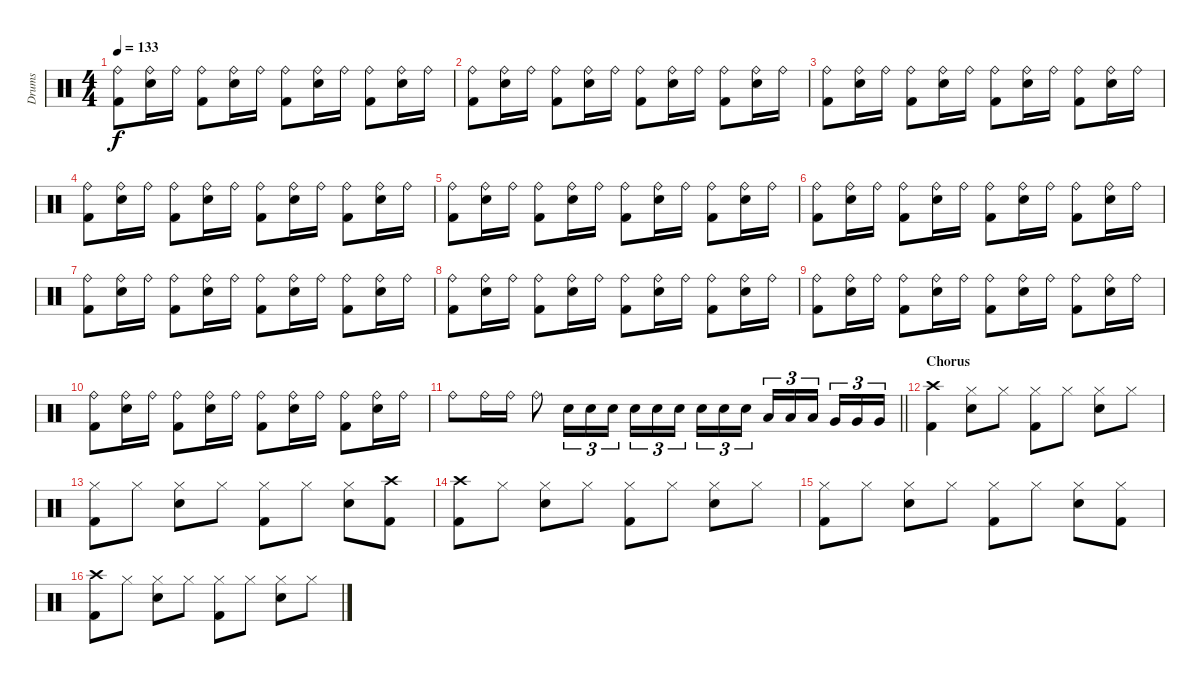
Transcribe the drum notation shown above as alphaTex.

\track ("Drums" "Drums") {instrument percussion}
\staff {score}
\articulation defaults
\ts (4 4)
\tempo 133
\clef neutral
\ks c
("Ride (bell)" "Kick (hit) 2").8{dy f} ("Ride (bell)" "Electric Snare (hit)").16 "Ride (bell)".16 ("Ride (bell)" "Kick (hit) 2").8 ("Ride (bell)" "Electric Snare (hit)").16 "Ride (bell)".16 ("Ride (bell)" "Kick (hit) 2").8 ("Ride (bell)" "Electric Snare (hit)").16 "Ride (bell)".16 ("Ride (bell)" "Kick (hit) 2").8 ("Ride (bell)" "Electric Snare (hit)").16 "Ride (bell)".16 |
("Ride (bell)" "Kick (hit) 2").8 ("Ride (bell)" "Electric Snare (hit)").16 "Ride (bell)".16 ("Ride (bell)" "Kick (hit) 2").8 ("Ride (bell)" "Electric Snare (hit)").16 "Ride (bell)".16 ("Ride (bell)" "Kick (hit) 2").8 ("Ride (bell)" "Electric Snare (hit)").16 "Ride (bell)".16 ("Ride (bell)" "Kick (hit) 2").8 ("Ride (bell)" "Electric Snare (hit)").16 "Ride (bell)".16 |
("Ride (bell)" "Kick (hit) 2").8 ("Ride (bell)" "Electric Snare (hit)").16 "Ride (bell)".16 ("Ride (bell)" "Kick (hit) 2").8 ("Ride (bell)" "Electric Snare (hit)").16 "Ride (bell)".16 ("Ride (bell)" "Kick (hit) 2").8 ("Ride (bell)" "Electric Snare (hit)").16 "Ride (bell)".16 ("Ride (bell)" "Kick (hit) 2").8 ("Ride (bell)" "Electric Snare (hit)").16 "Ride (bell)".16 |
("Ride (bell)" "Kick (hit) 2").8 ("Ride (bell)" "Electric Snare (hit)").16 "Ride (bell)".16 ("Ride (bell)" "Kick (hit) 2").8 ("Ride (bell)" "Electric Snare (hit)").16 "Ride (bell)".16 ("Ride (bell)" "Kick (hit) 2").8 ("Ride (bell)" "Electric Snare (hit)").16 "Ride (bell)".16 ("Ride (bell)" "Kick (hit) 2").8 ("Ride (bell)" "Electric Snare (hit)").16 "Ride (bell)".16 |
("Ride (bell)" "Kick (hit) 2").8 ("Ride (bell)" "Electric Snare (hit)").16 "Ride (bell)".16 ("Ride (bell)" "Kick (hit) 2").8 ("Ride (bell)" "Electric Snare (hit)").16 "Ride (bell)".16 ("Ride (bell)" "Kick (hit) 2").8 ("Ride (bell)" "Electric Snare (hit)").16 "Ride (bell)".16 ("Ride (bell)" "Kick (hit) 2").8 ("Ride (bell)" "Electric Snare (hit)").16 "Ride (bell)".16 |
("Ride (bell)" "Kick (hit) 2").8 ("Ride (bell)" "Electric Snare (hit)").16 "Ride (bell)".16 ("Ride (bell)" "Kick (hit) 2").8 ("Ride (bell)" "Electric Snare (hit)").16 "Ride (bell)".16 ("Ride (bell)" "Kick (hit) 2").8 ("Ride (bell)" "Electric Snare (hit)").16 "Ride (bell)".16 ("Ride (bell)" "Kick (hit) 2").8 ("Ride (bell)" "Electric Snare (hit)").16 "Ride (bell)".16 |
("Ride (bell)" "Kick (hit) 2").8 ("Ride (bell)" "Electric Snare (hit)").16 "Ride (bell)".16 ("Ride (bell)" "Kick (hit) 2").8 ("Ride (bell)" "Electric Snare (hit)").16 "Ride (bell)".16 ("Ride (bell)" "Kick (hit) 2").8 ("Ride (bell)" "Electric Snare (hit)").16 "Ride (bell)".16 ("Ride (bell)" "Kick (hit) 2").8 ("Ride (bell)" "Electric Snare (hit)").16 "Ride (bell)".16 |
("Ride (bell)" "Kick (hit) 2").8 ("Ride (bell)" "Electric Snare (hit)").16 "Ride (bell)".16 ("Ride (bell)" "Kick (hit) 2").8 ("Ride (bell)" "Electric Snare (hit)").16 "Ride (bell)".16 ("Ride (bell)" "Kick (hit) 2").8 ("Ride (bell)" "Electric Snare (hit)").16 "Ride (bell)".16 ("Ride (bell)" "Kick (hit) 2").8 ("Ride (bell)" "Electric Snare (hit)").16 "Ride (bell)".16 |
("Ride (bell)" "Kick (hit) 2").8 ("Ride (bell)" "Electric Snare (hit)").16 "Ride (bell)".16 ("Ride (bell)" "Kick (hit) 2").8 ("Ride (bell)" "Electric Snare (hit)").16 "Ride (bell)".16 ("Ride (bell)" "Kick (hit) 2").8 ("Ride (bell)" "Electric Snare (hit)").16 "Ride (bell)".16 ("Ride (bell)" "Kick (hit) 2").8 ("Ride (bell)" "Electric Snare (hit)").16 "Ride (bell)".16 |
("Ride (bell)" "Kick (hit) 2").8 ("Ride (bell)" "Electric Snare (hit)").16 "Ride (bell)".16 ("Ride (bell)" "Kick (hit) 2").8 ("Ride (bell)" "Electric Snare (hit)").16 "Ride (bell)".16 ("Ride (bell)" "Kick (hit) 2").8 ("Ride (bell)" "Electric Snare (hit)").16 "Ride (bell)".16 ("Ride (bell)" "Kick (hit) 2").8 ("Ride (bell)" "Electric Snare (hit)").16 "Ride (bell)".16 |
\barLineRight lightlight "Ride (bell)".8 "Ride (bell)".16 "Ride (bell)".16 "Ride (bell)".8 "Electric Snare (hit)".16{tu (3 2)} "Electric Snare (hit)".16{tu (3 2)} "Electric Snare (hit)".16{tu (3 2)} "Electric Snare (hit)".16{tu (3 2)} "Electric Snare (hit)".16{tu (3 2)} "Electric Snare (hit)".16{tu (3 2) beam splitsecondary} "Electric Snare (hit)".16{tu (3 2)} "Electric Snare (hit)".16{tu (3 2)} "Electric Snare (hit)".16{tu (3 2)} "Low Tom (hit)".16{tu (3 2)} "Low Tom (hit)".16{tu (3 2)} "Low Tom (hit)".16{tu (3 2) beam splitsecondary} "Very Low Tom (hit)".16{tu (3 2)} "Very Low Tom (hit)".16{tu (3 2)} "Very Low Tom (hit)".16{tu (3 2)}
|
\section ("" "Chorus")
("Kick (hit) 2" "Crash high (hit)").4 ("Electric Snare (hit)" "Hi-Hat (closed)").8 "Hi-Hat (closed)".8 ("Kick (hit) 2" "Hi-Hat (closed)").8 "Hi-Hat (closed)".8 ("Electric Snare (hit)" "Hi-Hat (closed)").8 "Hi-Hat (closed)".8 |
("Kick (hit) 2" "Hi-Hat (closed)").8 "Hi-Hat (closed)".8 ("Electric Snare (hit)" "Hi-Hat (closed)").8 "Hi-Hat (closed)".8 ("Kick (hit) 2" "Hi-Hat (closed)").8 "Hi-Hat (closed)".8 ("Electric Snare (hit)" "Hi-Hat (closed)").8 ("Kick (hit) 2" "Crash high (hit)").8 |
("Kick (hit) 2" "Crash high (hit)").8 "Hi-Hat (closed)".8 ("Electric Snare (hit)" "Hi-Hat (closed)").8 "Hi-Hat (closed)".8 ("Kick (hit) 2" "Hi-Hat (closed)").8 "Hi-Hat (closed)".8 ("Electric Snare (hit)" "Hi-Hat (closed)").8 "Hi-Hat (closed)".8 |
("Kick (hit) 2" "Hi-Hat (closed)").8 "Hi-Hat (closed)".8 ("Electric Snare (hit)" "Hi-Hat (closed)").8 "Hi-Hat (closed)".8 ("Kick (hit) 2" "Hi-Hat (closed)").8 "Hi-Hat (closed)".8 ("Electric Snare (hit)" "Hi-Hat (closed)").8 ("Kick (hit) 2" "Hi-Hat (closed)").8 |
("Kick (hit) 2" "Crash high (hit)").8 "Hi-Hat (closed)".8 ("Electric Snare (hit)" "Hi-Hat (closed)").8 "Hi-Hat (closed)".8 ("Kick (hit) 2" "Hi-Hat (closed)").8 "Hi-Hat (closed)".8 ("Electric Snare (hit)" "Hi-Hat (closed)").8 "Hi-Hat (closed)".8
